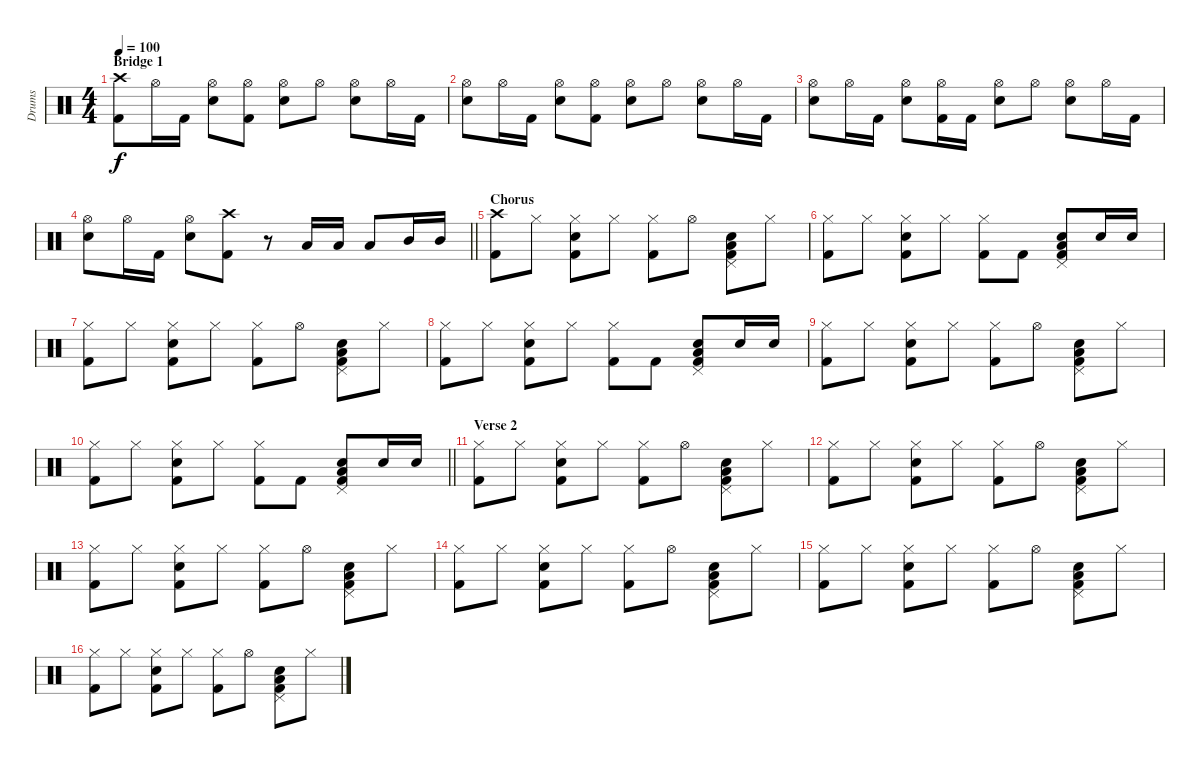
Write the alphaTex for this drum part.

\track ("Drums" "Drums") {instrument percussion}
\staff {score}
\articulation defaults
\ts (4 4)
\section ("" "Bridge 1")
\tempo 100
\clef neutral
\ks c
("Crash high (hit)" "Kick (hit) 2").8{dy f} "Hi-Hat (open)".16 "Kick (hit) 2".16 ("Hi-Hat (open)" "Snare (hit) 2").8 ("Hi-Hat (open)" "Kick (hit) 2").8 ("Hi-Hat (open)" "Snare (hit) 2").8 "Hi-Hat (open)".8 ("Snare (hit) 2" "Hi-Hat (open)").8 "Hi-Hat (open)".16 "Kick (hit) 2".16 |
("Snare (hit) 2" "Hi-Hat (open)").8 "Hi-Hat (open)".16 "Kick (hit) 2".16 ("Snare (hit) 2" "Hi-Hat (open)").8 ("Hi-Hat (open)" "Kick (hit) 2").8 ("Snare (hit) 2" "Hi-Hat (open)").8 "Hi-Hat (open)".8 ("Hi-Hat (open)" "Snare (hit) 2").8 "Hi-Hat (open)".16 "Kick (hit) 2".16 |
("Hi-Hat (open)" "Snare (hit) 2").8 "Hi-Hat (open)".16 "Kick (hit) 2".16 ("Hi-Hat (open)" "Snare (hit) 2").8 ("Hi-Hat (open)" "Kick (hit) 2").16 "Kick (hit) 2".16 ("Snare (hit) 2" "Hi-Hat (open)").8 "Hi-Hat (open)".8 ("Hi-Hat (open)" "Snare (hit) 2").8 "Hi-Hat (open)".16 "Kick (hit) 2".16 |
\barLineRight lightlight
("Snare (hit) 2" "Hi-Hat (open)").8 "Hi-Hat (open)".16 "Kick (hit) 2".16 ("Hi-Hat (open)" "Snare (hit) 2").8 ("Crash high (hit)" "Kick (hit) 2").8 r.8 "Low Tom (hit)".16 "Low Tom (hit)".16 "Low Tom (hit)".8 "Mid Tom (hit)".16 "Mid Tom (hit)".16 |
\section ("" "Chorus")
("Crash high (hit)" "Kick (hit) 2").8 "Hi-Hat (closed)".8 ("Kick (hit) 2" "Hi-Hat (closed)" "Snare (hit) 2").8 "Hi-Hat (closed)".8 ("Hi-Hat (closed)" "Kick (hit) 2").8 "Hi-Hat (open)".8 ("Kick (hit) 2" "Snare (hit) 2" "Low Floor Tom (hit)" "Pedal Hi-Hat (hit)").8 "Hi-Hat (closed)".8 |
("Hi-Hat (closed)" "Kick (hit) 2").8 "Hi-Hat (closed)".8 ("Kick (hit) 2" "Snare (hit) 2" "Hi-Hat (closed)").8 "Hi-Hat (closed)".8 ("Hi-Hat (closed)" "Kick (hit) 2").8 "Kick (hit) 2".8 ("Kick (hit) 2" "Pedal Hi-Hat (hit)" "Low Floor Tom (hit)" "Snare (hit) 2").8 "Snare (hit) 2".16 "Snare (hit) 2".16 |
("Kick (hit) 2" "Hi-Hat (closed)").8 "Hi-Hat (closed)".8 ("Kick (hit) 2" "Hi-Hat (closed)" "Snare (hit) 2").8 "Hi-Hat (closed)".8 ("Kick (hit) 2" "Hi-Hat (closed)").8 "Hi-Hat (open)".8 ("Kick (hit) 2" "Pedal Hi-Hat (hit)" "Low Floor Tom (hit)" "Snare (hit) 2").8 "Hi-Hat (closed)".8 |
("Hi-Hat (closed)" "Kick (hit) 2").8 "Hi-Hat (closed)".8 ("Kick (hit) 2" "Snare (hit) 2" "Hi-Hat (closed)").8 "Hi-Hat (closed)".8 ("Hi-Hat (closed)" "Kick (hit) 2").8 "Kick (hit) 2".8 ("Kick (hit) 2" "Pedal Hi-Hat (hit)" "Low Floor Tom (hit)" "Snare (hit) 2").8 "Snare (hit) 2".16 "Snare (hit) 2".16 |
("Kick (hit) 2" "Hi-Hat (closed)").8 "Hi-Hat (closed)".8 ("Kick (hit) 2" "Hi-Hat (closed)" "Snare (hit) 2").8 "Hi-Hat (closed)".8 ("Kick (hit) 2" "Hi-Hat (closed)").8 "Hi-Hat (open)".8 ("Kick (hit) 2" "Pedal Hi-Hat (hit)" "Low Floor Tom (hit)" "Snare (hit) 2").8 "Hi-Hat (closed)".8 |
\barLineRight lightlight
("Hi-Hat (closed)" "Kick (hit) 2").8 "Hi-Hat (closed)".8 ("Kick (hit) 2" "Snare (hit) 2" "Hi-Hat (closed)").8 "Hi-Hat (closed)".8 ("Hi-Hat (closed)" "Kick (hit) 2").8 "Kick (hit) 2".8 ("Kick (hit) 2" "Pedal Hi-Hat (hit)" "Low Floor Tom (hit)" "Snare (hit) 2").8 "Snare (hit) 2".16 "Snare (hit) 2".16 |
\section ("" "Verse 2")
("Kick (hit) 2" "Hi-Hat (closed)").8 "Hi-Hat (closed)".8 ("Kick (hit) 2" "Hi-Hat (closed)" "Snare (hit) 2").8 "Hi-Hat (closed)".8 ("Kick (hit) 2" "Hi-Hat (closed)").8 "Hi-Hat (open)".8 ("Kick (hit) 2" "Pedal Hi-Hat (hit)" "Low Floor Tom (hit)" "Snare (hit) 2").8 "Hi-Hat (closed)".8 |
("Kick (hit) 2" "Hi-Hat (closed)").8 "Hi-Hat (closed)".8 ("Kick (hit) 2" "Hi-Hat (closed)" "Snare (hit) 2").8 "Hi-Hat (closed)".8 ("Kick (hit) 2" "Hi-Hat (closed)").8 "Hi-Hat (open)".8 ("Kick (hit) 2" "Pedal Hi-Hat (hit)" "Low Floor Tom (hit)" "Snare (hit) 2").8 "Hi-Hat (closed)".8 |
("Kick (hit) 2" "Hi-Hat (closed)").8 "Hi-Hat (closed)".8 ("Kick (hit) 2" "Hi-Hat (closed)" "Snare (hit) 2").8 "Hi-Hat (closed)".8 ("Kick (hit) 2" "Hi-Hat (closed)").8 "Hi-Hat (open)".8 ("Kick (hit) 2" "Pedal Hi-Hat (hit)" "Low Floor Tom (hit)" "Snare (hit) 2").8 "Hi-Hat (closed)".8 |
("Kick (hit) 2" "Hi-Hat (closed)").8 "Hi-Hat (closed)".8 ("Kick (hit) 2" "Hi-Hat (closed)" "Snare (hit) 2").8 "Hi-Hat (closed)".8 ("Kick (hit) 2" "Hi-Hat (closed)").8 "Hi-Hat (open)".8 ("Kick (hit) 2" "Pedal Hi-Hat (hit)" "Low Floor Tom (hit)" "Snare (hit) 2").8 "Hi-Hat (closed)".8 |
("Kick (hit) 2" "Hi-Hat (closed)").8 "Hi-Hat (closed)".8 ("Kick (hit) 2" "Hi-Hat (closed)" "Snare (hit) 2").8 "Hi-Hat (closed)".8 ("Kick (hit) 2" "Hi-Hat (closed)").8 "Hi-Hat (open)".8 ("Kick (hit) 2" "Pedal Hi-Hat (hit)" "Low Floor Tom (hit)" "Snare (hit) 2").8 "Hi-Hat (closed)".8 |
("Kick (hit) 2" "Hi-Hat (closed)").8 "Hi-Hat (closed)".8 ("Kick (hit) 2" "Hi-Hat (closed)" "Snare (hit) 2").8 "Hi-Hat (closed)".8 ("Kick (hit) 2" "Hi-Hat (closed)").8 "Hi-Hat (open)".8 ("Kick (hit) 2" "Pedal Hi-Hat (hit)" "Low Floor Tom (hit)" "Snare (hit) 2").8 "Hi-Hat (closed)".8
